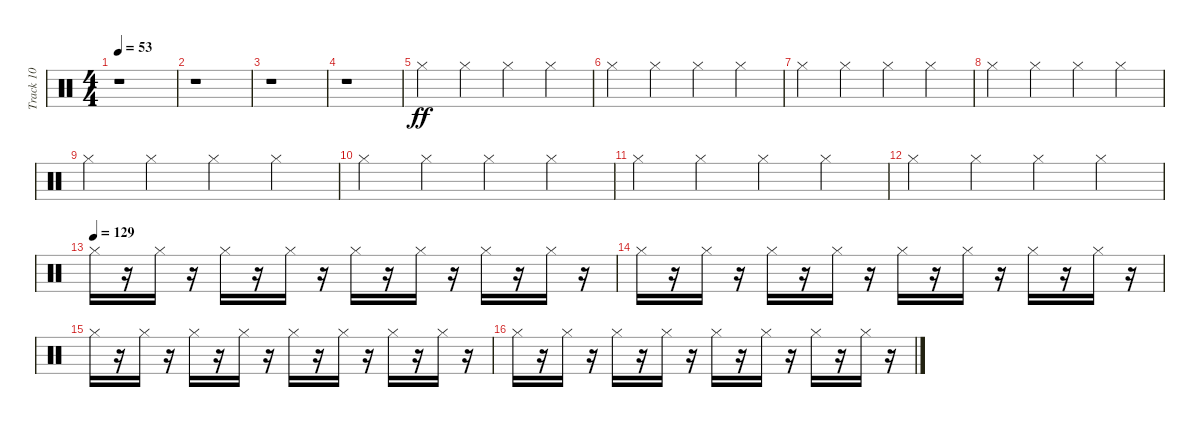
\track ("Track 10" "Track 10") {instrument percussion}
\staff {score}
\articulation defaults
\ts (4 4)
\tempo 53
\clef neutral
\ks c
r.1{dy ff} |
r.1 |
r.1 |
r.1 |
"Hi-Hat (closed)".4 "Hi-Hat (closed)".4 "Hi-Hat (closed)".4 "Hi-Hat (closed)".4 |
"Hi-Hat (closed)".4 "Hi-Hat (closed)".4 "Hi-Hat (closed)".4 "Hi-Hat (closed)".4 |
"Hi-Hat (closed)".4 "Hi-Hat (closed)".4 "Hi-Hat (closed)".4 "Hi-Hat (closed)".4 |
"Hi-Hat (closed)".4 "Hi-Hat (closed)".4 "Hi-Hat (closed)".4 "Hi-Hat (closed)".4 |
"Hi-Hat (closed)".4 "Hi-Hat (closed)".4 "Hi-Hat (closed)".4 "Hi-Hat (closed)".4 |
"Hi-Hat (closed)".4 "Hi-Hat (closed)".4 "Hi-Hat (closed)".4 "Hi-Hat (closed)".4 |
"Hi-Hat (closed)".4 "Hi-Hat (closed)".4 "Hi-Hat (closed)".4 "Hi-Hat (closed)".4 |
"Hi-Hat (closed)".4 "Hi-Hat (closed)".4 "Hi-Hat (closed)".4 "Hi-Hat (closed)".4 |
\tempo (129)
"Hi-Hat (closed)".16 r.16 "Hi-Hat (closed)".16 r.16 "Hi-Hat (closed)".16 r.16 "Hi-Hat (closed)".16 r.16 "Hi-Hat (closed)".16 r.16 "Hi-Hat (closed)".16 r.16 "Hi-Hat (closed)".16 r.16 "Hi-Hat (closed)".16 r.16 |
"Hi-Hat (closed)".16 r.16 "Hi-Hat (closed)".16 r.16 "Hi-Hat (closed)".16 r.16 "Hi-Hat (closed)".16 r.16 "Hi-Hat (closed)".16 r.16 "Hi-Hat (closed)".16 r.16 "Hi-Hat (closed)".16 r.16 "Hi-Hat (closed)".16 r.16 |
"Hi-Hat (closed)".16 r.16 "Hi-Hat (closed)".16 r.16 "Hi-Hat (closed)".16 r.16 "Hi-Hat (closed)".16 r.16 "Hi-Hat (closed)".16 r.16 "Hi-Hat (closed)".16 r.16 "Hi-Hat (closed)".16 r.16 "Hi-Hat (closed)".16 r.16 |
"Hi-Hat (closed)".16 r.16 "Hi-Hat (closed)".16 r.16 "Hi-Hat (closed)".16 r.16 "Hi-Hat (closed)".16 r.16 "Hi-Hat (closed)".16 r.16 "Hi-Hat (closed)".16 r.16 "Hi-Hat (closed)".16 r.16 "Hi-Hat (closed)".16 r.16
